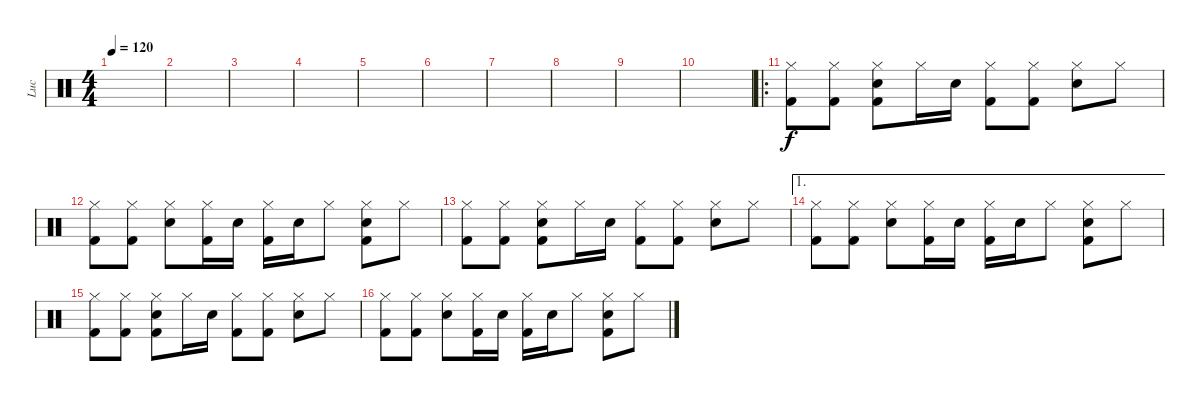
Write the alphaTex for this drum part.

\track ("Luc" "Luc") {instrument percussion}
\staff {score}
\articulation defaults
\ts (4 4)
\tempo 120
\clef neutral
\ks c
|
|
|
|
|
|
|
|
|
|
\ro
("Hi-Hat (closed)" "Kick (hit) 2").8 ("Hi-Hat (closed)" "Kick (hit) 2").8 ("Hi-Hat (closed)" "Snare (hit) 2" "Kick (hit) 2").8 "Hi-Hat (closed)".16 "Snare (hit) 2"{tr (38 32)}.16 ("Hi-Hat (closed)" "Kick (hit) 2").8 ("Hi-Hat (closed)" "Kick (hit) 2").8 ("Hi-Hat (closed)" "Snare (hit) 2").8 "Hi-Hat (closed)".8 |
("Hi-Hat (closed)" "Kick (hit) 2").8 ("Hi-Hat (closed)" "Kick (hit) 2").8 ("Hi-Hat (closed)" "Snare (hit) 2").8 ("Hi-Hat (closed)" "Kick (hit) 2").16 "Snare (hit) 2"{tr (38 32)}.16 ("Hi-Hat (closed)" "Kick (hit) 2").16 "Snare (hit) 2"{tr (38 32)}.16 "Hi-Hat (closed)".8 ("Hi-Hat (closed)" "Snare (hit) 2" "Kick (hit) 2").8 "Hi-Hat (closed)".8 |
("Hi-Hat (closed)" "Kick (hit) 2").8 ("Hi-Hat (closed)" "Kick (hit) 2").8 ("Hi-Hat (closed)" "Snare (hit) 2" "Kick (hit) 2").8 "Hi-Hat (closed)".16 "Snare (hit) 2"{tr (38 32)}.16 ("Hi-Hat (closed)" "Kick (hit) 2").8 ("Hi-Hat (closed)" "Kick (hit) 2").8 ("Hi-Hat (closed)" "Snare (hit) 2").8 "Hi-Hat (closed)".8 |
\ae 1
("Hi-Hat (closed)" "Kick (hit) 2").8 ("Hi-Hat (closed)" "Kick (hit) 2").8 ("Hi-Hat (closed)" "Snare (hit) 2").8 ("Hi-Hat (closed)" "Kick (hit) 2").16 "Snare (hit) 2"{tr (38 32)}.16 ("Hi-Hat (closed)" "Kick (hit) 2").16 "Snare (hit) 2"{tr (38 32)}.16 "Hi-Hat (closed)".8 ("Hi-Hat (closed)" "Snare (hit) 2" "Kick (hit) 2").8 "Hi-Hat (closed)".8 |
("Hi-Hat (closed)" "Kick (hit) 2").8 ("Hi-Hat (closed)" "Kick (hit) 2").8 ("Hi-Hat (closed)" "Snare (hit) 2" "Kick (hit) 2").8 "Hi-Hat (closed)".16 "Snare (hit) 2"{tr (38 32)}.16 ("Hi-Hat (closed)" "Kick (hit) 2").8 ("Hi-Hat (closed)" "Kick (hit) 2").8 ("Hi-Hat (closed)" "Snare (hit) 2").8 "Hi-Hat (closed)".8 |
("Hi-Hat (closed)" "Kick (hit) 2").8 ("Hi-Hat (closed)" "Kick (hit) 2").8 ("Hi-Hat (closed)" "Snare (hit) 2").8 ("Hi-Hat (closed)" "Kick (hit) 2").16 "Snare (hit) 2"{tr (38 32)}.16 ("Hi-Hat (closed)" "Kick (hit) 2").16 "Snare (hit) 2"{tr (38 32)}.16 "Hi-Hat (closed)".8 ("Hi-Hat (closed)" "Snare (hit) 2" "Kick (hit) 2").8 "Hi-Hat (closed)".8
